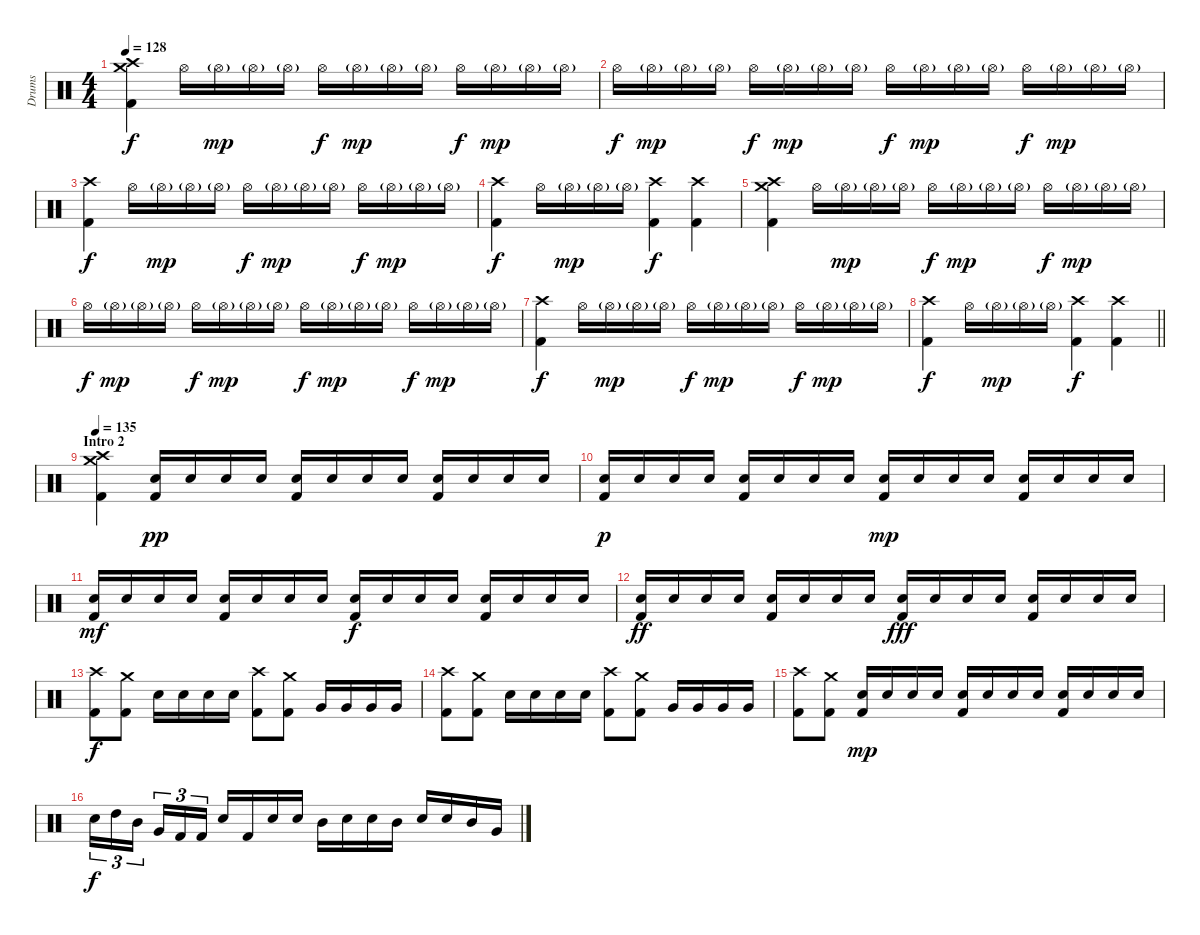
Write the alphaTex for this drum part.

\track ("Drums" "Drums") {instrument percussion}
\staff {score}
\articulation defaults
\ts (4 4)
\tempo 128
\clef neutral
\ks c
("Crash high (hit)" "Crash medium (hit)" "Kick (hit) 2").4{dy f} "Hi-Hat (open)".16 "Hi-Hat (open)"{g}.16{dy mp} "Hi-Hat (open)"{g}.16 "Hi-Hat (open)"{g}.16 "Hi-Hat (open)".16{dy f} "Hi-Hat (open)"{g}.16{dy mp} "Hi-Hat (open)"{g}.16 "Hi-Hat (open)"{g}.16 "Hi-Hat (open)".16{dy f} "Hi-Hat (open)"{g}.16{dy mp} "Hi-Hat (open)"{g}.16 "Hi-Hat (open)"{g}.16 |
"Hi-Hat (open)".16{dy f} "Hi-Hat (open)"{g}.16{dy mp} "Hi-Hat (open)"{g}.16 "Hi-Hat (open)"{g}.16 "Hi-Hat (open)".16{dy f} "Hi-Hat (open)"{g}.16{dy mp} "Hi-Hat (open)"{g}.16 "Hi-Hat (open)"{g}.16 "Hi-Hat (open)".16{dy f} "Hi-Hat (open)"{g}.16{dy mp} "Hi-Hat (open)"{g}.16 "Hi-Hat (open)"{g}.16 "Hi-Hat (open)".16{dy f} "Hi-Hat (open)"{g}.16{dy mp} "Hi-Hat (open)"{g}.16 "Hi-Hat (open)"{g}.16 |
("Crash high (hit)" "Kick (hit) 2").4{dy f} "Hi-Hat (open)".16 "Hi-Hat (open)"{g}.16{dy mp} "Hi-Hat (open)"{g}.16 "Hi-Hat (open)"{g}.16 "Hi-Hat (open)".16{dy f} "Hi-Hat (open)"{g}.16{dy mp} "Hi-Hat (open)"{g}.16 "Hi-Hat (open)"{g}.16 "Hi-Hat (open)".16{dy f} "Hi-Hat (open)"{g}.16{dy mp} "Hi-Hat (open)"{g}.16 "Hi-Hat (open)"{g}.16 |
("Crash high (hit)" "Kick (hit) 2").4{dy f} "Hi-Hat (open)".16 "Hi-Hat (open)"{g}.16{dy mp} "Hi-Hat (open)"{g}.16 "Hi-Hat (open)"{g}.16 ("Crash high (hit)" "Kick (hit) 2").4{dy f} ("Crash high (hit)" "Kick (hit) 2").4 |
("Crash high (hit)" "Crash medium (hit)" "Kick (hit) 2").4 "Hi-Hat (open)".16 "Hi-Hat (open)"{g}.16{dy mp} "Hi-Hat (open)"{g}.16 "Hi-Hat (open)"{g}.16 "Hi-Hat (open)".16{dy f} "Hi-Hat (open)"{g}.16{dy mp} "Hi-Hat (open)"{g}.16 "Hi-Hat (open)"{g}.16 "Hi-Hat (open)".16{dy f} "Hi-Hat (open)"{g}.16{dy mp} "Hi-Hat (open)"{g}.16 "Hi-Hat (open)"{g}.16 |
"Hi-Hat (open)".16{dy f} "Hi-Hat (open)"{g}.16{dy mp} "Hi-Hat (open)"{g}.16 "Hi-Hat (open)"{g}.16 "Hi-Hat (open)".16{dy f} "Hi-Hat (open)"{g}.16{dy mp} "Hi-Hat (open)"{g}.16 "Hi-Hat (open)"{g}.16 "Hi-Hat (open)".16{dy f} "Hi-Hat (open)"{g}.16{dy mp} "Hi-Hat (open)"{g}.16 "Hi-Hat (open)"{g}.16 "Hi-Hat (open)".16{dy f} "Hi-Hat (open)"{g}.16{dy mp} "Hi-Hat (open)"{g}.16 "Hi-Hat (open)"{g}.16 |
("Crash high (hit)" "Kick (hit) 2").4{dy f} "Hi-Hat (open)".16 "Hi-Hat (open)"{g}.16{dy mp} "Hi-Hat (open)"{g}.16 "Hi-Hat (open)"{g}.16 "Hi-Hat (open)".16{dy f} "Hi-Hat (open)"{g}.16{dy mp} "Hi-Hat (open)"{g}.16 "Hi-Hat (open)"{g}.16 "Hi-Hat (open)".16{dy f} "Hi-Hat (open)"{g}.16{dy mp} "Hi-Hat (open)"{g}.16 "Hi-Hat (open)"{g}.16 |
\barLineRight lightlight
("Crash high (hit)" "Kick (hit) 2").4{dy f} "Hi-Hat (open)".16 "Hi-Hat (open)"{g}.16{dy mp} "Hi-Hat (open)"{g}.16 "Hi-Hat (open)"{g}.16 ("Crash high (hit)" "Kick (hit) 2").4{dy f} ("Crash high (hit)" "Kick (hit) 2").4 |
\section ("" "Intro 2")
\tempo 135
("Crash high (hit)" "Crash medium (hit)" "Kick (hit) 2").4 ("Snare (hit) 2" "Kick (hit) 2").16{dy pp} "Snare (hit) 2".16 "Snare (hit) 2".16 "Snare (hit) 2".16 ("Snare (hit) 2" "Kick (hit) 2").16 "Snare (hit) 2".16 "Snare (hit) 2".16 "Snare (hit) 2".16 ("Snare (hit) 2" "Kick (hit) 2").16 "Snare (hit) 2".16 "Snare (hit) 2".16 "Snare (hit) 2".16 |
("Snare (hit) 2" "Kick (hit) 2").16{dy p} "Snare (hit) 2".16 "Snare (hit) 2".16 "Snare (hit) 2".16 ("Snare (hit) 2" "Kick (hit) 2").16 "Snare (hit) 2".16 "Snare (hit) 2".16 "Snare (hit) 2".16 ("Snare (hit) 2" "Kick (hit) 2").16{dy mp} "Snare (hit) 2".16 "Snare (hit) 2".16 "Snare (hit) 2".16 ("Snare (hit) 2" "Kick (hit) 2").16 "Snare (hit) 2".16 "Snare (hit) 2".16 "Snare (hit) 2".16 |
("Snare (hit) 2" "Kick (hit) 2").16{dy mf} "Snare (hit) 2".16 "Snare (hit) 2".16 "Snare (hit) 2".16 ("Snare (hit) 2" "Kick (hit) 2").16 "Snare (hit) 2".16 "Snare (hit) 2".16 "Snare (hit) 2".16 ("Snare (hit) 2" "Kick (hit) 2").16{dy f} "Snare (hit) 2".16 "Snare (hit) 2".16 "Snare (hit) 2".16 ("Snare (hit) 2" "Kick (hit) 2").16 "Snare (hit) 2".16 "Snare (hit) 2".16 "Snare (hit) 2".16 |
("Snare (hit) 2" "Kick (hit) 2").16{dy ff} "Snare (hit) 2".16 "Snare (hit) 2".16 "Snare (hit) 2".16 ("Snare (hit) 2" "Kick (hit) 2").16 "Snare (hit) 2".16 "Snare (hit) 2".16 "Snare (hit) 2".16 ("Snare (hit) 2" "Kick (hit) 2").16{dy fff} "Snare (hit) 2".16 "Snare (hit) 2".16 "Snare (hit) 2".16 ("Snare (hit) 2" "Kick (hit) 2").16 "Snare (hit) 2".16 "Snare (hit) 2".16 "Snare (hit) 2".16 |
("Crash high (hit)" "Kick (hit) 2").8{dy f} ("Crash medium (hit)" "Kick (hit) 2").8 "Snare (hit) 2".16 "Snare (hit) 2".16 "Snare (hit) 2".16 "Snare (hit) 2".16 ("Crash high (hit)" "Kick (hit) 2").8 ("Crash medium (hit)" "Kick (hit) 2").8 "Very Low Tom (hit)".16 "Very Low Tom (hit)".16 "Very Low Tom (hit)".16 "Very Low Tom (hit)".16 |
("Crash high (hit)" "Kick (hit) 2").8 ("Crash medium (hit)" "Kick (hit) 2").8 "Snare (hit) 2".16 "Snare (hit) 2".16 "Snare (hit) 2".16 "Snare (hit) 2".16 ("Crash high (hit)" "Kick (hit) 2").8 ("Crash medium (hit)" "Kick (hit) 2").8 "Very Low Tom (hit)".16 "Very Low Tom (hit)".16 "Very Low Tom (hit)".16 "Very Low Tom (hit)".16 |
("Crash high (hit)" "Kick (hit) 2").8 ("Crash medium (hit)" "Kick (hit) 2").8 ("Snare (hit) 2" "Kick (hit) 2").16{dy mp} "Snare (hit) 2".16 "Snare (hit) 2".16 "Snare (hit) 2".16 ("Snare (hit) 2" "Kick (hit) 2").16 "Snare (hit) 2".16 "Snare (hit) 2".16 "Snare (hit) 2".16 ("Snare (hit) 2" "Kick (hit) 2").16 "Snare (hit) 2".16 "Snare (hit) 2".16 "Snare (hit) 2".16 |
"Snare (hit) 2".16{tu (3 2) dy f} "High Tom (hit)".16{tu (3 2)} "Mid Tom (hit)".16{tu (3 2) beam splitsecondary} "Very Low Tom (hit)".16{tu (3 2)} "Kick (hit) 2".16{tu (3 2)} "Kick (hit) 2".16{tu (3 2)} "Snare (hit) 2".16 "Kick (hit) 2".16 "Snare (hit) 2".16 "Snare (hit) 2".16 "Mid Tom (hit)".16 "Snare (hit) 2".16 "Snare (hit) 2".16 "Mid Tom (hit)".16 "Snare (hit) 2".16 "Snare (hit) 2".16 "Mid Tom (hit)".16 "Very Low Tom (hit)".16
